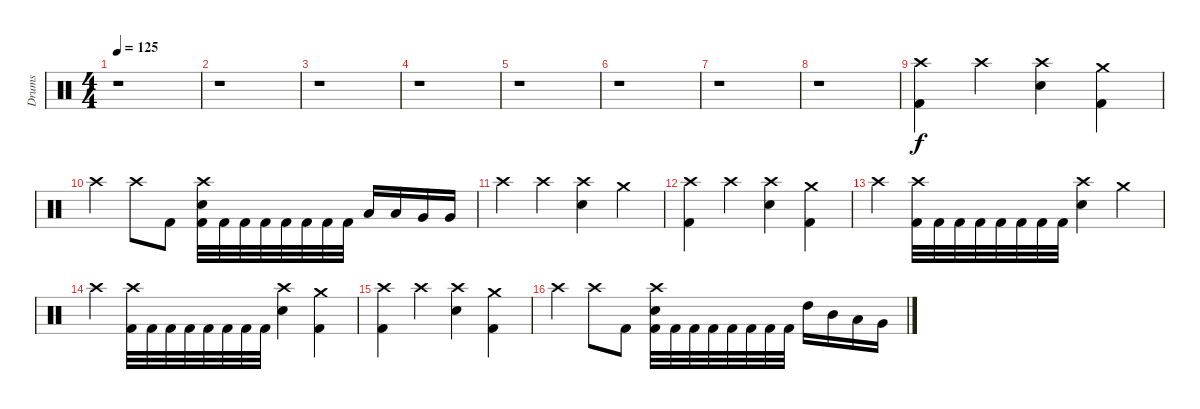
\track ("Drums" "Drums") {instrument percussion}
\staff {score}
\articulation defaults
\ts (4 4)
\tempo 125
\clef neutral
\ks c
r.1{dy f} |
r.1 |
r.1 |
r.1 |
r.1 |
r.1 |
r.1 |
r.1 |
("Crash high (hit)" "Kick (hit) 2").4 "Crash high (hit)".4 ("Crash high (hit)" "Snare (hit) 2").4 ("Crash medium (hit)" "Kick (hit) 2").4 |
"Crash high (hit)".4 "Crash high (hit)".8 "Kick (hit) 2".8 ("Crash high (hit)" "Snare (hit) 2" "Kick (hit) 2").32 "Kick (hit) 2".32 "Kick (hit) 2".32 "Kick (hit) 2".32 "Kick (hit) 2".32 "Kick (hit) 2".32 "Kick (hit) 2".32 "Kick (hit) 2".32 "Low Floor Tom (hit)".16 "Low Floor Tom (hit)".16 "Very Low Tom (hit)".16 "Very Low Tom (hit)".16 |
"Crash high (hit)".4 "Crash high (hit)".4 ("Snare (hit) 2" "Crash high (hit)").4 "Crash medium (hit)".4 |
("Crash high (hit)" "Kick (hit) 2").4 "Crash high (hit)".4 ("Crash high (hit)" "Snare (hit) 2").4 ("Crash medium (hit)" "Kick (hit) 2").4 |
"Crash high (hit)".4 ("Kick (hit) 2" "Crash high (hit)").32 "Kick (hit) 2".32 "Kick (hit) 2".32 "Kick (hit) 2".32 "Kick (hit) 2".32 "Kick (hit) 2".32 "Kick (hit) 2".32 "Kick (hit) 2".32 ("Crash high (hit)" "Snare (hit) 2").4 "Crash medium (hit)".4 |
"Crash high (hit)".4 ("Crash high (hit)" "Kick (hit) 2").32 "Kick (hit) 2".32 "Kick (hit) 2".32 "Kick (hit) 2".32 "Kick (hit) 2".32 "Kick (hit) 2".32 "Kick (hit) 2".32 "Kick (hit) 2".32 ("Crash high (hit)" "Snare (hit) 2").4 ("Crash medium (hit)" "Kick (hit) 2").4 |
("Crash high (hit)" "Kick (hit) 2").4 "Crash high (hit)".4 ("Crash high (hit)" "Snare (hit) 2").4 ("Crash medium (hit)" "Kick (hit) 2").4 |
"Crash high (hit)".4 "Crash high (hit)".8 "Kick (hit) 2".8 ("Crash high (hit)" "Snare (hit) 2" "Kick (hit) 2").32 "Kick (hit) 2".32 "Kick (hit) 2".32 "Kick (hit) 2".32 "Kick (hit) 2".32 "Kick (hit) 2".32 "Kick (hit) 2".32 "Kick (hit) 2".32 "High Tom (hit)".16 "Mid Tom (hit)".16 "Low Tom (hit)".16 "Very Low Tom (hit)".16
